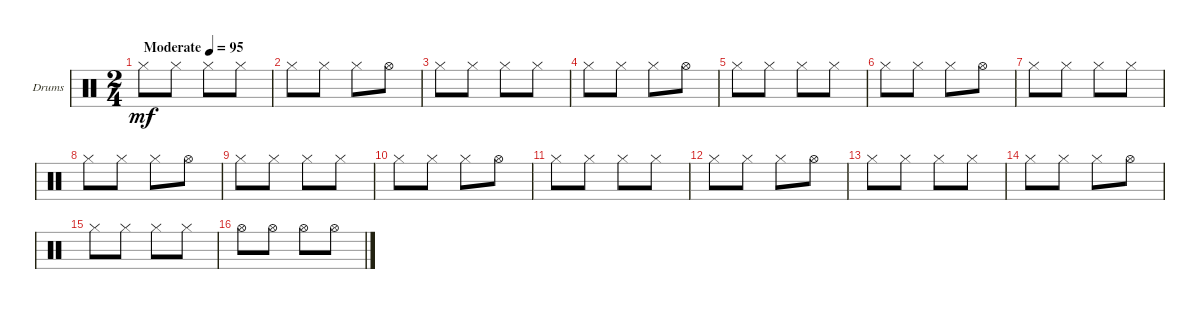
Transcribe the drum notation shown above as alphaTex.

\bracketExtendMode groupsimilarinstruments
\firstSystemTrackNameOrientation horizontal
\otherSystemsTrackNameOrientation horizontal
\track ("Drumkit" "Drums") {instrument percussion}
\staff {score}
\articulation defaults
\ts (2 4)
\tempo (95 "Moderate")
\clef neutral
\ks c "Hi-Hat (closed)".8{dy mf} "Hi-Hat (closed)".8 "Hi-Hat (closed)".8 "Hi-Hat (closed)".8
|
"Hi-Hat (closed)".8 "Hi-Hat (closed)".8 "Hi-Hat (closed)".8 "Hi-Hat (open)".8 |
"Hi-Hat (closed)".8 "Hi-Hat (closed)".8 "Hi-Hat (closed)".8 "Hi-Hat (closed)".8 |
"Hi-Hat (closed)".8 "Hi-Hat (closed)".8 "Hi-Hat (closed)".8 "Hi-Hat (open)".8 |
"Hi-Hat (closed)".8 "Hi-Hat (closed)".8 "Hi-Hat (closed)".8 "Hi-Hat (closed)".8 |
"Hi-Hat (closed)".8 "Hi-Hat (closed)".8 "Hi-Hat (closed)".8 "Hi-Hat (open)".8 |
"Hi-Hat (closed)".8 "Hi-Hat (closed)".8 "Hi-Hat (closed)".8 "Hi-Hat (closed)".8 |
"Hi-Hat (closed)".8 "Hi-Hat (closed)".8 "Hi-Hat (closed)".8 "Hi-Hat (open)".8 |
"Hi-Hat (closed)".8 "Hi-Hat (closed)".8 "Hi-Hat (closed)".8 "Hi-Hat (closed)".8 |
"Hi-Hat (closed)".8 "Hi-Hat (closed)".8 "Hi-Hat (closed)".8 "Hi-Hat (open)".8 |
"Hi-Hat (closed)".8 "Hi-Hat (closed)".8 "Hi-Hat (closed)".8 "Hi-Hat (closed)".8 |
"Hi-Hat (closed)".8 "Hi-Hat (closed)".8 "Hi-Hat (closed)".8 "Hi-Hat (open)".8 |
"Hi-Hat (closed)".8 "Hi-Hat (closed)".8 "Hi-Hat (closed)".8 "Hi-Hat (closed)".8 |
"Hi-Hat (closed)".8 "Hi-Hat (closed)".8 "Hi-Hat (closed)".8 "Hi-Hat (open)".8 |
"Hi-Hat (closed)".8 "Hi-Hat (closed)".8 "Hi-Hat (closed)".8 "Hi-Hat (closed)".8 |
"Hi-Hat (open)".8 "Hi-Hat (open)".8 "Hi-Hat (open)".8 "Hi-Hat (open)".8
